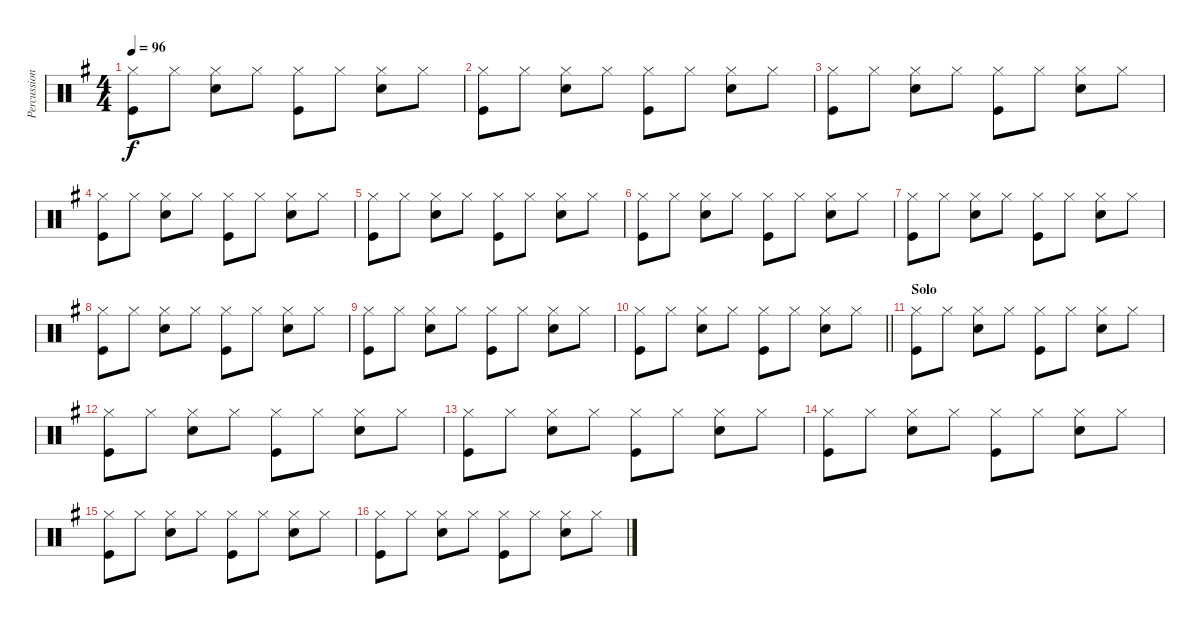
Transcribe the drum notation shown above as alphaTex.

\track ("Percussion" "Percussion") {instrument percussion}
\staff {score}
\articulation defaults
\ts (4 4)
\tempo 96
\clef neutral
\ks g
("Hi-Hat (closed)" "Kick (hit)").8{dy f} "Hi-Hat (closed)".8 ("Hi-Hat (closed)" "Snare (hit) 2").8 "Hi-Hat (closed)".8 ("Hi-Hat (closed)" "Kick (hit)").8 "Hi-Hat (closed)".8 ("Hi-Hat (closed)" "Snare (hit) 2").8 "Hi-Hat (closed)".8 |
("Hi-Hat (closed)" "Kick (hit)").8 "Hi-Hat (closed)".8 ("Hi-Hat (closed)" "Snare (hit) 2").8 "Hi-Hat (closed)".8 ("Hi-Hat (closed)" "Kick (hit)").8 "Hi-Hat (closed)".8 ("Hi-Hat (closed)" "Snare (hit) 2").8 "Hi-Hat (closed)".8 |
("Hi-Hat (closed)" "Kick (hit)").8 "Hi-Hat (closed)".8 ("Hi-Hat (closed)" "Snare (hit) 2").8 "Hi-Hat (closed)".8 ("Hi-Hat (closed)" "Kick (hit)").8 "Hi-Hat (closed)".8 ("Hi-Hat (closed)" "Snare (hit) 2").8 "Hi-Hat (closed)".8 |
("Hi-Hat (closed)" "Kick (hit)").8 "Hi-Hat (closed)".8 ("Hi-Hat (closed)" "Snare (hit) 2").8 "Hi-Hat (closed)".8 ("Hi-Hat (closed)" "Kick (hit)").8 "Hi-Hat (closed)".8 ("Hi-Hat (closed)" "Snare (hit) 2").8 "Hi-Hat (closed)".8 |
("Hi-Hat (closed)" "Kick (hit)").8 "Hi-Hat (closed)".8 ("Hi-Hat (closed)" "Snare (hit) 2").8 "Hi-Hat (closed)".8 ("Hi-Hat (closed)" "Kick (hit)").8 "Hi-Hat (closed)".8 ("Hi-Hat (closed)" "Snare (hit) 2").8 "Hi-Hat (closed)".8 |
("Hi-Hat (closed)" "Kick (hit)").8 "Hi-Hat (closed)".8 ("Hi-Hat (closed)" "Snare (hit) 2").8 "Hi-Hat (closed)".8 ("Hi-Hat (closed)" "Kick (hit)").8 "Hi-Hat (closed)".8 ("Hi-Hat (closed)" "Snare (hit) 2").8 "Hi-Hat (closed)".8 |
("Hi-Hat (closed)" "Kick (hit)").8 "Hi-Hat (closed)".8 ("Hi-Hat (closed)" "Snare (hit) 2").8 "Hi-Hat (closed)".8 ("Hi-Hat (closed)" "Kick (hit)").8 "Hi-Hat (closed)".8 ("Hi-Hat (closed)" "Snare (hit) 2").8 "Hi-Hat (closed)".8 |
("Hi-Hat (closed)" "Kick (hit)").8 "Hi-Hat (closed)".8 ("Hi-Hat (closed)" "Snare (hit) 2").8 "Hi-Hat (closed)".8 ("Hi-Hat (closed)" "Kick (hit)").8 "Hi-Hat (closed)".8 ("Hi-Hat (closed)" "Snare (hit) 2").8 "Hi-Hat (closed)".8 |
("Hi-Hat (closed)" "Kick (hit)").8 "Hi-Hat (closed)".8 ("Hi-Hat (closed)" "Snare (hit) 2").8 "Hi-Hat (closed)".8 ("Hi-Hat (closed)" "Kick (hit)").8 "Hi-Hat (closed)".8 ("Hi-Hat (closed)" "Snare (hit) 2").8 "Hi-Hat (closed)".8 |
\barLineRight lightlight
("Hi-Hat (closed)" "Kick (hit)").8 "Hi-Hat (closed)".8 ("Hi-Hat (closed)" "Snare (hit) 2").8 "Hi-Hat (closed)".8 ("Hi-Hat (closed)" "Kick (hit)").8 "Hi-Hat (closed)".8 ("Hi-Hat (closed)" "Snare (hit) 2").8 "Hi-Hat (closed)".8 |
\section ("" "Solo")
("Hi-Hat (closed)" "Kick (hit)").8 "Hi-Hat (closed)".8 ("Hi-Hat (closed)" "Snare (hit) 2").8 "Hi-Hat (closed)".8 ("Hi-Hat (closed)" "Kick (hit)").8 "Hi-Hat (closed)".8 ("Hi-Hat (closed)" "Snare (hit) 2").8 "Hi-Hat (closed)".8 |
("Hi-Hat (closed)" "Kick (hit)").8 "Hi-Hat (closed)".8 ("Hi-Hat (closed)" "Snare (hit) 2").8 "Hi-Hat (closed)".8 ("Hi-Hat (closed)" "Kick (hit)").8 "Hi-Hat (closed)".8 ("Hi-Hat (closed)" "Snare (hit) 2").8 "Hi-Hat (closed)".8 |
("Hi-Hat (closed)" "Kick (hit)").8 "Hi-Hat (closed)".8 ("Hi-Hat (closed)" "Snare (hit) 2").8 "Hi-Hat (closed)".8 ("Hi-Hat (closed)" "Kick (hit)").8 "Hi-Hat (closed)".8 ("Hi-Hat (closed)" "Snare (hit) 2").8 "Hi-Hat (closed)".8 |
("Hi-Hat (closed)" "Kick (hit)").8 "Hi-Hat (closed)".8 ("Hi-Hat (closed)" "Snare (hit) 2").8 "Hi-Hat (closed)".8 ("Hi-Hat (closed)" "Kick (hit)").8 "Hi-Hat (closed)".8 ("Hi-Hat (closed)" "Snare (hit) 2").8 "Hi-Hat (closed)".8 |
("Hi-Hat (closed)" "Kick (hit)").8 "Hi-Hat (closed)".8 ("Hi-Hat (closed)" "Snare (hit) 2").8 "Hi-Hat (closed)".8 ("Hi-Hat (closed)" "Kick (hit)").8 "Hi-Hat (closed)".8 ("Hi-Hat (closed)" "Snare (hit) 2").8 "Hi-Hat (closed)".8 |
("Hi-Hat (closed)" "Kick (hit)").8 "Hi-Hat (closed)".8 ("Hi-Hat (closed)" "Snare (hit) 2").8 "Hi-Hat (closed)".8 ("Hi-Hat (closed)" "Kick (hit)").8 "Hi-Hat (closed)".8 ("Hi-Hat (closed)" "Snare (hit) 2").8 "Hi-Hat (closed)".8
